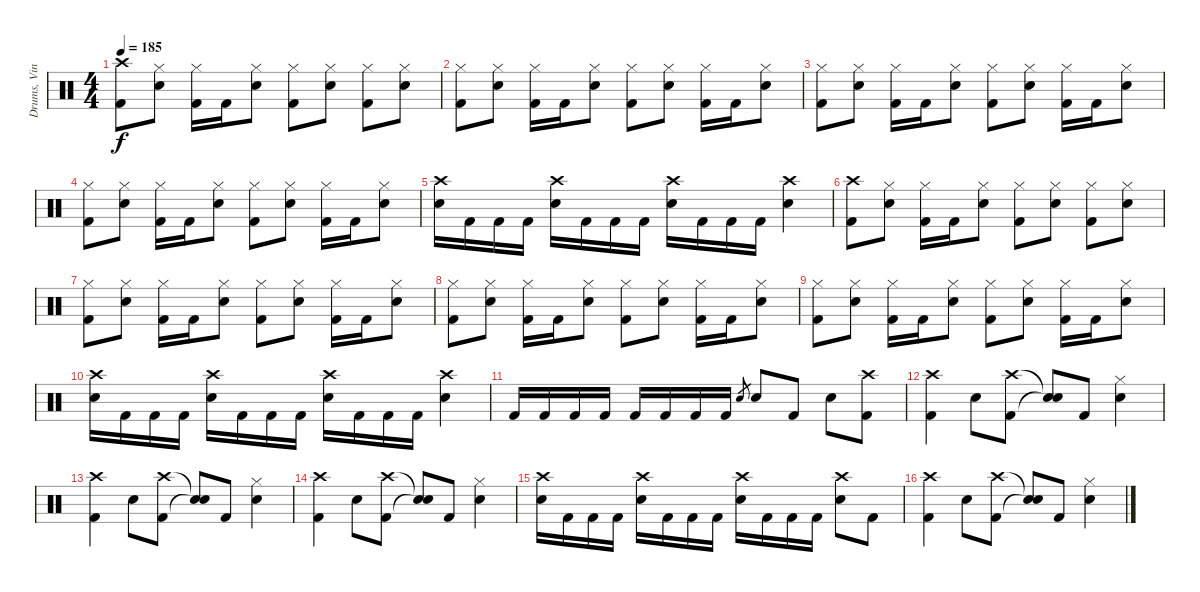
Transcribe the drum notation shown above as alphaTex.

\track ("Drums, Vinnie" "Drums, Vin") {instrument percussion}
\staff {score}
\articulation defaults
\ts (4 4)
\tempo 185
\clef neutral
\ks c
("Crash high (hit)" "Kick (hit) 2").8{dy f} ("Hi-Hat (closed)" "Electric Snare (hit)").8 ("Hi-Hat (closed)" "Kick (hit) 2").16 "Kick (hit) 2".16 ("Hi-Hat (closed)" "Electric Snare (hit)").8 ("Hi-Hat (closed)" "Kick (hit) 2").8 ("Hi-Hat (closed)" "Electric Snare (hit)").8 ("Hi-Hat (closed)" "Kick (hit) 2").8 ("Hi-Hat (closed)" "Electric Snare (hit)").8 |
("Hi-Hat (closed)" "Kick (hit) 2").8 ("Hi-Hat (closed)" "Electric Snare (hit)").8 ("Hi-Hat (closed)" "Kick (hit) 2").16 "Kick (hit) 2".16 ("Hi-Hat (closed)" "Electric Snare (hit)").8 ("Hi-Hat (closed)" "Kick (hit) 2").8 ("Hi-Hat (closed)" "Electric Snare (hit)").8 ("Hi-Hat (closed)" "Kick (hit) 2").16 "Kick (hit) 2".16 ("Hi-Hat (closed)" "Electric Snare (hit)").8 |
("Hi-Hat (closed)" "Kick (hit) 2").8 ("Hi-Hat (closed)" "Electric Snare (hit)").8 ("Hi-Hat (closed)" "Kick (hit) 2").16 "Kick (hit) 2".16 ("Hi-Hat (closed)" "Electric Snare (hit)").8 ("Hi-Hat (closed)" "Kick (hit) 2").8 ("Hi-Hat (closed)" "Electric Snare (hit)").8 ("Hi-Hat (closed)" "Kick (hit) 2").16 "Kick (hit) 2".16 ("Hi-Hat (closed)" "Electric Snare (hit)").8 |
("Hi-Hat (closed)" "Kick (hit) 2").8 ("Hi-Hat (closed)" "Electric Snare (hit)").8 ("Hi-Hat (closed)" "Kick (hit) 2").16 "Kick (hit) 2".16 ("Hi-Hat (closed)" "Electric Snare (hit)").8 ("Hi-Hat (closed)" "Kick (hit) 2").8 ("Hi-Hat (closed)" "Electric Snare (hit)").8 ("Hi-Hat (closed)" "Kick (hit) 2").16 "Kick (hit) 2".16 ("Hi-Hat (closed)" "Electric Snare (hit)").8 |
("Crash high (hit)" "Electric Snare (hit)").16 "Kick (hit) 2".16 "Kick (hit) 2".16 "Kick (hit) 2".16 ("Crash high (hit)" "Electric Snare (hit)").16 "Kick (hit) 2".16 "Kick (hit) 2".16 "Kick (hit) 2".16 ("Crash high (hit)" "Electric Snare (hit)").16 "Kick (hit) 2".16 "Kick (hit) 2".16 "Kick (hit) 2".16 ("Crash high (hit)" "Electric Snare (hit)").4 |
("Crash high (hit)" "Kick (hit) 2").8 ("Hi-Hat (closed)" "Electric Snare (hit)").8 ("Hi-Hat (closed)" "Kick (hit) 2").16 "Kick (hit) 2".16 ("Hi-Hat (closed)" "Electric Snare (hit)").8 ("Hi-Hat (closed)" "Kick (hit) 2").8 ("Hi-Hat (closed)" "Electric Snare (hit)").8 ("Hi-Hat (closed)" "Kick (hit) 2").8 ("Hi-Hat (closed)" "Electric Snare (hit)").8 |
("Hi-Hat (closed)" "Kick (hit) 2").8 ("Hi-Hat (closed)" "Electric Snare (hit)").8 ("Hi-Hat (closed)" "Kick (hit) 2").16 "Kick (hit) 2".16 ("Hi-Hat (closed)" "Electric Snare (hit)").8 ("Hi-Hat (closed)" "Kick (hit) 2").8 ("Hi-Hat (closed)" "Electric Snare (hit)").8 ("Hi-Hat (closed)" "Kick (hit) 2").16 "Kick (hit) 2".16 ("Hi-Hat (closed)" "Electric Snare (hit)").8 |
("Hi-Hat (closed)" "Kick (hit) 2").8 ("Hi-Hat (closed)" "Electric Snare (hit)").8 ("Hi-Hat (closed)" "Kick (hit) 2").16 "Kick (hit) 2".16 ("Hi-Hat (closed)" "Electric Snare (hit)").8 ("Hi-Hat (closed)" "Kick (hit) 2").8 ("Hi-Hat (closed)" "Electric Snare (hit)").8 ("Hi-Hat (closed)" "Kick (hit) 2").16 "Kick (hit) 2".16 ("Hi-Hat (closed)" "Electric Snare (hit)").8 |
("Hi-Hat (closed)" "Kick (hit) 2").8 ("Hi-Hat (closed)" "Electric Snare (hit)").8 ("Hi-Hat (closed)" "Kick (hit) 2").16 "Kick (hit) 2".16 ("Hi-Hat (closed)" "Electric Snare (hit)").8 ("Hi-Hat (closed)" "Kick (hit) 2").8 ("Hi-Hat (closed)" "Electric Snare (hit)").8 ("Hi-Hat (closed)" "Kick (hit) 2").16 "Kick (hit) 2".16 ("Hi-Hat (closed)" "Electric Snare (hit)").8 |
("Crash high (hit)" "Electric Snare (hit)").16 "Kick (hit) 2".16 "Kick (hit) 2".16 "Kick (hit) 2".16 ("Crash high (hit)" "Electric Snare (hit)").16 "Kick (hit) 2".16 "Kick (hit) 2".16 "Kick (hit) 2".16 ("Crash high (hit)" "Electric Snare (hit)").16 "Kick (hit) 2".16 "Kick (hit) 2".16 "Kick (hit) 2".16 ("Crash high (hit)" "Electric Snare (hit)").4 |
"Kick (hit) 2".16 "Kick (hit) 2".16 "Kick (hit) 2".16 "Kick (hit) 2".16 "Kick (hit) 2".16 "Kick (hit) 2".16 "Kick (hit) 2".16 "Kick (hit) 2".16 "Electric Snare (hit)".8{gr} "Electric Snare (hit)".8 "Kick (hit) 2".8 "Electric Snare (hit)".8 ("Crash high (hit)" "Kick (hit) 2").8 |
("Crash high (hit)" "Kick (hit) 2").4 "Electric Snare (hit)".8 ("Crash high (hit)" "Kick (hit) 2").8 ("Snare (hit)"{t} "Snare (hit)"{t}).8 "Kick (hit) 2".8 ("Hi-Hat (closed)" "Electric Snare (hit)").4 |
("Crash high (hit)" "Kick (hit) 2").4 "Electric Snare (hit)".8 ("Crash high (hit)" "Kick (hit) 2").8 ("Snare (hit)"{t} "Snare (hit)"{t}).8 "Kick (hit) 2".8 ("Hi-Hat (closed)" "Electric Snare (hit)").4 |
("Crash high (hit)" "Kick (hit) 2").4 "Electric Snare (hit)".8 ("Crash high (hit)" "Kick (hit) 2").8 ("Snare (hit)"{t} "Snare (hit)"{t}).8 "Kick (hit) 2".8 ("Hi-Hat (closed)" "Electric Snare (hit)").4 |
("Crash high (hit)" "Electric Snare (hit)").16 "Kick (hit) 2".16 "Kick (hit) 2".16 "Kick (hit) 2".16 ("Crash high (hit)" "Electric Snare (hit)").16 "Kick (hit) 2".16 "Kick (hit) 2".16 "Kick (hit) 2".16 ("Crash high (hit)" "Electric Snare (hit)").16 "Kick (hit) 2".16 "Kick (hit) 2".16 "Kick (hit) 2".16 ("Crash high (hit)" "Electric Snare (hit)").8 "Kick (hit) 2".8 |
("Crash high (hit)" "Kick (hit) 2").4 "Electric Snare (hit)".8 ("Crash high (hit)" "Kick (hit) 2").8 ("Snare (hit)"{t} "Snare (hit)"{t}).8 "Kick (hit) 2".8 ("Hi-Hat (closed)" "Electric Snare (hit)").4
